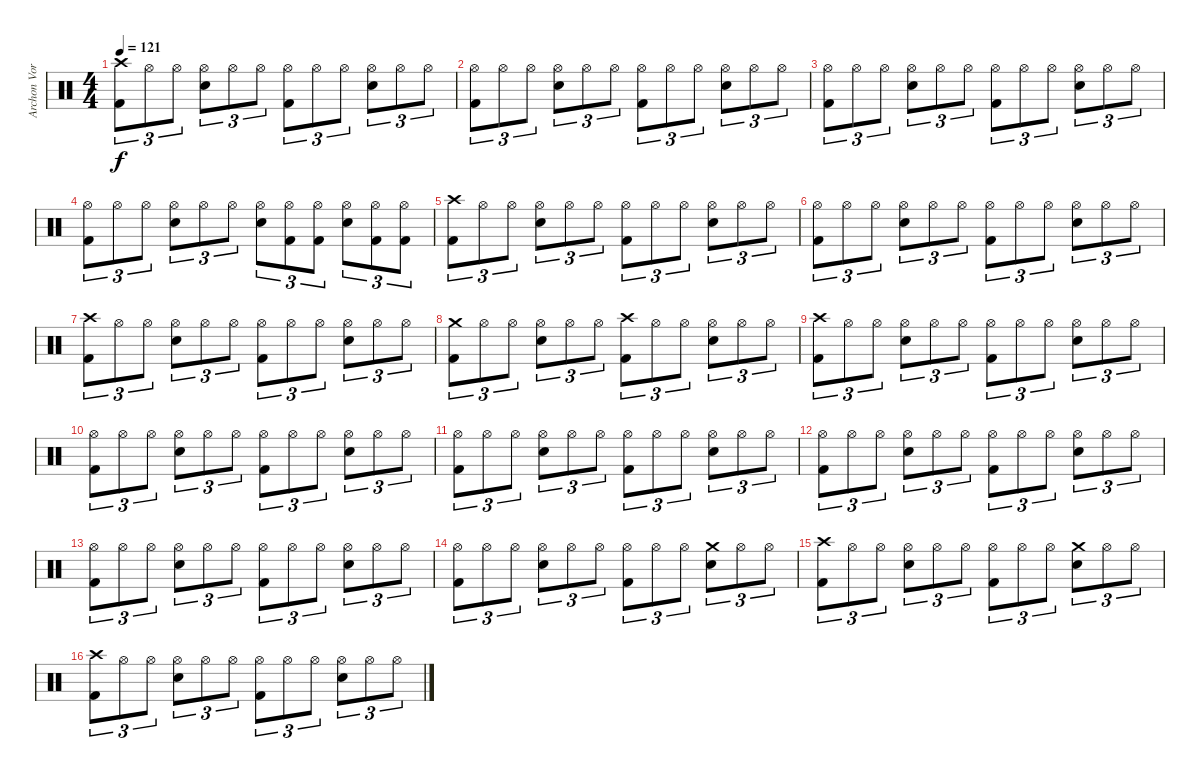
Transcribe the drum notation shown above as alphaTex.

\track ("Archon Vorskaath" "Archon Vor") {instrument percussion}
\staff {score}
\articulation defaults
\ts (4 4)
\tempo 121
\clef neutral
\ks c
("Crash high (hit)" "Kick (hit) 2").8{tu (3 2) dy f} "Hi-Hat (open)".8{tu (3 2)} "Hi-Hat (open)".8{tu (3 2)} ("Hi-Hat (open)" "Electric Snare (hit)").8{tu (3 2)} "Hi-Hat (open)".8{tu (3 2)} "Hi-Hat (open)".8{tu (3 2)} ("Hi-Hat (open)" "Kick (hit) 2").8{tu (3 2)} "Hi-Hat (open)".8{tu (3 2)} "Hi-Hat (open)".8{tu (3 2)} ("Hi-Hat (open)" "Electric Snare (hit)").8{tu (3 2)} "Hi-Hat (open)".8{tu (3 2)} "Hi-Hat (open)".8{tu (3 2)} |
("Hi-Hat (open)" "Kick (hit) 2").8{tu (3 2)} "Hi-Hat (open)".8{tu (3 2)} "Hi-Hat (open)".8{tu (3 2)} ("Hi-Hat (open)" "Electric Snare (hit)").8{tu (3 2)} "Hi-Hat (open)".8{tu (3 2)} "Hi-Hat (open)".8{tu (3 2)} ("Hi-Hat (open)" "Kick (hit) 2").8{tu (3 2)} "Hi-Hat (open)".8{tu (3 2)} "Hi-Hat (open)".8{tu (3 2)} ("Hi-Hat (open)" "Electric Snare (hit)").8{tu (3 2)} "Hi-Hat (open)".8{tu (3 2)} "Hi-Hat (open)".8{tu (3 2)} |
("Hi-Hat (open)" "Kick (hit) 2").8{tu (3 2)} "Hi-Hat (open)".8{tu (3 2)} "Hi-Hat (open)".8{tu (3 2)} ("Hi-Hat (open)" "Electric Snare (hit)").8{tu (3 2)} "Hi-Hat (open)".8{tu (3 2)} "Hi-Hat (open)".8{tu (3 2)} ("Hi-Hat (open)" "Kick (hit) 2").8{tu (3 2)} "Hi-Hat (open)".8{tu (3 2)} "Hi-Hat (open)".8{tu (3 2)} ("Hi-Hat (open)" "Electric Snare (hit)").8{tu (3 2)} "Hi-Hat (open)".8{tu (3 2)} "Hi-Hat (open)".8{tu (3 2)} |
("Hi-Hat (open)" "Kick (hit) 2").8{tu (3 2)} "Hi-Hat (open)".8{tu (3 2)} "Hi-Hat (open)".8{tu (3 2)} ("Hi-Hat (open)" "Electric Snare (hit)").8{tu (3 2)} "Hi-Hat (open)".8{tu (3 2)} "Hi-Hat (open)".8{tu (3 2)} ("Hi-Hat (open)" "Electric Snare (hit)").8{tu (3 2)} ("Hi-Hat (open)" "Kick (hit) 2").8{tu (3 2)} ("Hi-Hat (open)" "Kick (hit) 2").8{tu (3 2)} ("Hi-Hat (open)" "Electric Snare (hit)").8{tu (3 2)} ("Hi-Hat (open)" "Kick (hit) 2").8{tu (3 2)} ("Hi-Hat (open)" "Kick (hit) 2").8{tu (3 2)} |
("Crash high (hit)" "Kick (hit) 2").8{tu (3 2)} "Hi-Hat (open)".8{tu (3 2)} "Hi-Hat (open)".8{tu (3 2)} ("Hi-Hat (open)" "Electric Snare (hit)").8{tu (3 2)} "Hi-Hat (open)".8{tu (3 2)} "Hi-Hat (open)".8{tu (3 2)} ("Hi-Hat (open)" "Kick (hit) 2").8{tu (3 2)} "Hi-Hat (open)".8{tu (3 2)} "Hi-Hat (open)".8{tu (3 2)} ("Hi-Hat (open)" "Electric Snare (hit)").8{tu (3 2)} "Hi-Hat (open)".8{tu (3 2)} "Hi-Hat (open)".8{tu (3 2)} |
("Hi-Hat (open)" "Kick (hit) 2").8{tu (3 2)} "Hi-Hat (open)".8{tu (3 2)} "Hi-Hat (open)".8{tu (3 2)} ("Hi-Hat (open)" "Electric Snare (hit)").8{tu (3 2)} "Hi-Hat (open)".8{tu (3 2)} "Hi-Hat (open)".8{tu (3 2)} ("Hi-Hat (open)" "Kick (hit) 2").8{tu (3 2)} "Hi-Hat (open)".8{tu (3 2)} "Hi-Hat (open)".8{tu (3 2)} ("Hi-Hat (open)" "Electric Snare (hit)").8{tu (3 2)} "Hi-Hat (open)".8{tu (3 2)} "Hi-Hat (open)".8{tu (3 2)} |
("Crash high (hit)" "Kick (hit) 2").8{tu (3 2)} "Hi-Hat (open)".8{tu (3 2)} "Hi-Hat (open)".8{tu (3 2)} ("Hi-Hat (open)" "Electric Snare (hit)").8{tu (3 2)} "Hi-Hat (open)".8{tu (3 2)} "Hi-Hat (open)".8{tu (3 2)} ("Hi-Hat (open)" "Kick (hit) 2").8{tu (3 2)} "Hi-Hat (open)".8{tu (3 2)} "Hi-Hat (open)".8{tu (3 2)} ("Hi-Hat (open)" "Electric Snare (hit)").8{tu (3 2)} "Hi-Hat (open)".8{tu (3 2)} "Hi-Hat (open)".8{tu (3 2)} |
("Crash medium (hit)" "Kick (hit) 2").8{tu (3 2)} "Hi-Hat (open)".8{tu (3 2)} "Hi-Hat (open)".8{tu (3 2)} ("Hi-Hat (open)" "Electric Snare (hit)").8{tu (3 2)} "Hi-Hat (open)".8{tu (3 2)} "Hi-Hat (open)".8{tu (3 2)} ("Crash high (hit)" "Kick (hit) 2").8{tu (3 2)} "Hi-Hat (open)".8{tu (3 2)} "Hi-Hat (open)".8{tu (3 2)} ("Hi-Hat (open)" "Electric Snare (hit)").8{tu (3 2)} "Hi-Hat (open)".8{tu (3 2)} "Hi-Hat (open)".8{tu (3 2)} |
("Crash high (hit)" "Kick (hit) 2").8{tu (3 2)} "Hi-Hat (open)".8{tu (3 2)} "Hi-Hat (open)".8{tu (3 2)} ("Hi-Hat (open)" "Electric Snare (hit)").8{tu (3 2)} "Hi-Hat (open)".8{tu (3 2)} "Hi-Hat (open)".8{tu (3 2)} ("Hi-Hat (open)" "Kick (hit) 2").8{tu (3 2)} "Hi-Hat (open)".8{tu (3 2)} "Hi-Hat (open)".8{tu (3 2)} ("Hi-Hat (open)" "Electric Snare (hit)").8{tu (3 2)} "Hi-Hat (open)".8{tu (3 2)} "Hi-Hat (open)".8{tu (3 2)} |
("Hi-Hat (open)" "Kick (hit) 2").8{tu (3 2)} "Hi-Hat (open)".8{tu (3 2)} "Hi-Hat (open)".8{tu (3 2)} ("Hi-Hat (open)" "Electric Snare (hit)").8{tu (3 2)} "Hi-Hat (open)".8{tu (3 2)} "Hi-Hat (open)".8{tu (3 2)} ("Hi-Hat (open)" "Kick (hit) 2").8{tu (3 2)} "Hi-Hat (open)".8{tu (3 2)} "Hi-Hat (open)".8{tu (3 2)} ("Hi-Hat (open)" "Electric Snare (hit)").8{tu (3 2)} "Hi-Hat (open)".8{tu (3 2)} "Hi-Hat (open)".8{tu (3 2)} |
("Hi-Hat (open)" "Kick (hit) 2").8{tu (3 2)} "Hi-Hat (open)".8{tu (3 2)} "Hi-Hat (open)".8{tu (3 2)} ("Hi-Hat (open)" "Electric Snare (hit)").8{tu (3 2)} "Hi-Hat (open)".8{tu (3 2)} "Hi-Hat (open)".8{tu (3 2)} ("Hi-Hat (open)" "Kick (hit) 2").8{tu (3 2)} "Hi-Hat (open)".8{tu (3 2)} "Hi-Hat (open)".8{tu (3 2)} ("Hi-Hat (open)" "Electric Snare (hit)").8{tu (3 2)} "Hi-Hat (open)".8{tu (3 2)} "Hi-Hat (open)".8{tu (3 2)} |
("Hi-Hat (open)" "Kick (hit) 2").8{tu (3 2)} "Hi-Hat (open)".8{tu (3 2)} "Hi-Hat (open)".8{tu (3 2)} ("Hi-Hat (open)" "Electric Snare (hit)").8{tu (3 2)} "Hi-Hat (open)".8{tu (3 2)} "Hi-Hat (open)".8{tu (3 2)} ("Hi-Hat (open)" "Kick (hit) 2").8{tu (3 2)} "Hi-Hat (open)".8{tu (3 2)} "Hi-Hat (open)".8{tu (3 2)} ("Hi-Hat (open)" "Electric Snare (hit)").8{tu (3 2)} "Hi-Hat (open)".8{tu (3 2)} "Hi-Hat (open)".8{tu (3 2)} |
("Hi-Hat (open)" "Kick (hit) 2").8{tu (3 2)} "Hi-Hat (open)".8{tu (3 2)} "Hi-Hat (open)".8{tu (3 2)} ("Hi-Hat (open)" "Electric Snare (hit)").8{tu (3 2)} "Hi-Hat (open)".8{tu (3 2)} "Hi-Hat (open)".8{tu (3 2)} ("Hi-Hat (open)" "Kick (hit) 2").8{tu (3 2)} "Hi-Hat (open)".8{tu (3 2)} "Hi-Hat (open)".8{tu (3 2)} ("Hi-Hat (open)" "Electric Snare (hit)").8{tu (3 2)} "Hi-Hat (open)".8{tu (3 2)} "Hi-Hat (open)".8{tu (3 2)} |
("Hi-Hat (open)" "Kick (hit) 2").8{tu (3 2)} "Hi-Hat (open)".8{tu (3 2)} "Hi-Hat (open)".8{tu (3 2)} ("Hi-Hat (open)" "Electric Snare (hit)").8{tu (3 2)} "Hi-Hat (open)".8{tu (3 2)} "Hi-Hat (open)".8{tu (3 2)} ("Hi-Hat (open)" "Kick (hit) 2").8{tu (3 2)} "Hi-Hat (open)".8{tu (3 2)} "Hi-Hat (open)".8{tu (3 2)} ("Crash medium (hit)" "Electric Snare (hit)").8{tu (3 2)} "Hi-Hat (open)".8{tu (3 2)} "Hi-Hat (open)".8{tu (3 2)} |
("Crash high (hit)" "Kick (hit) 2").8{tu (3 2)} "Hi-Hat (open)".8{tu (3 2)} "Hi-Hat (open)".8{tu (3 2)} ("Hi-Hat (open)" "Electric Snare (hit)").8{tu (3 2)} "Hi-Hat (open)".8{tu (3 2)} "Hi-Hat (open)".8{tu (3 2)} ("Hi-Hat (open)" "Kick (hit) 2").8{tu (3 2)} "Hi-Hat (open)".8{tu (3 2)} "Hi-Hat (open)".8{tu (3 2)} ("Crash medium (hit)" "Electric Snare (hit)").8{tu (3 2)} "Hi-Hat (open)".8{tu (3 2)} "Hi-Hat (open)".8{tu (3 2)} |
("Crash high (hit)" "Kick (hit) 2").8{tu (3 2)} "Hi-Hat (open)".8{tu (3 2)} "Hi-Hat (open)".8{tu (3 2)} ("Hi-Hat (open)" "Electric Snare (hit)").8{tu (3 2)} "Hi-Hat (open)".8{tu (3 2)} "Hi-Hat (open)".8{tu (3 2)} ("Hi-Hat (open)" "Kick (hit) 2").8{tu (3 2)} "Hi-Hat (open)".8{tu (3 2)} "Hi-Hat (open)".8{tu (3 2)} ("Hi-Hat (open)" "Electric Snare (hit)").8{tu (3 2)} "Hi-Hat (open)".8{tu (3 2)} "Hi-Hat (open)".8{tu (3 2)}
